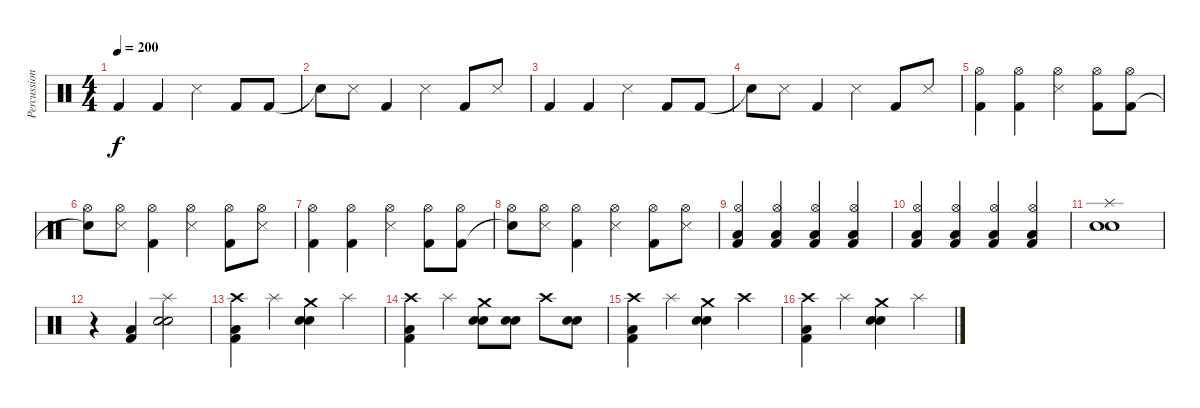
\track ("Percussions" "Percussion") {instrument percussion}
\staff {score}
\articulation defaults
\ts (4 4)
\tempo 200
\clef neutral
\ks c "Kick (hit) 2".4{dy f} "Kick (hit) 2".4 "Snare (side stick) 3".4 "Kick (hit) 2".8 "Kick (hit) 2".8
|
"Snare (hit) 2"{t}.8 "Snare (side stick) 3".8 "Kick (hit) 2".4 "Snare (side stick) 3".4 "Kick (hit) 2".8 "Snare (side stick) 3".8 |
"Kick (hit) 2".4 "Kick (hit) 2".4 "Snare (side stick) 3".4 "Kick (hit) 2".8 "Kick (hit) 2".8 |
"Snare (hit) 2"{t}.8 "Snare (side stick) 3".8 "Kick (hit) 2".4 "Snare (side stick) 3".4 "Kick (hit) 2".8 "Snare (side stick) 3".8 |
("Hi-Hat (open)" "Kick (hit) 2").4 ("Hi-Hat (open)" "Kick (hit) 2").4 ("Hi-Hat (open)" "Snare (side stick) 3").4 ("Hi-Hat (open)" "Kick (hit) 2").8 ("Hi-Hat (open)" "Kick (hit) 2").8 |
("Hi-Hat (open)" "Snare (hit) 2"{t}).8 ("Hi-Hat (open)" "Snare (side stick) 3").8 ("Hi-Hat (open)" "Kick (hit) 2").4 ("Hi-Hat (open)" "Snare (side stick) 3").4 ("Hi-Hat (open)" "Kick (hit) 2").8 ("Hi-Hat (open)" "Snare (side stick) 3").8 |
("Hi-Hat (open)" "Kick (hit) 2").4 ("Hi-Hat (open)" "Kick (hit) 2").4 ("Hi-Hat (open)" "Snare (side stick) 3").4 ("Hi-Hat (open)" "Kick (hit) 2").8 ("Hi-Hat (open)" "Kick (hit) 2").8 |
("Hi-Hat (open)" "Snare (hit) 2"{t}).8 ("Hi-Hat (open)" "Snare (side stick) 3").8 ("Hi-Hat (open)" "Kick (hit) 2").4 ("Hi-Hat (open)" "Snare (side stick) 3").4 ("Hi-Hat (open)" "Kick (hit) 2").8 ("Hi-Hat (open)" "Snare (side stick) 3").8 |
("Hi-Hat (open)" "Kick (hit) 2" "Low Floor Tom (hit)").4 ("Hi-Hat (open)" "Kick (hit) 2" "Low Floor Tom (hit)").4 ("Hi-Hat (open)" "Kick (hit) 2" "Low Floor Tom (hit)").4 ("Hi-Hat (open)" "Kick (hit) 2" "Low Floor Tom (hit)").4 |
("Hi-Hat (open)" "Kick (hit) 2" "Low Floor Tom (hit)").4 ("Hi-Hat (open)" "Kick (hit) 2" "Low Floor Tom (hit)").4 ("Hi-Hat (open)" "Kick (hit) 2" "Low Floor Tom (hit)").4 ("Hi-Hat (open)" "Kick (hit) 2" "Low Floor Tom (hit)").4 |
("Splash (hit)" "Snare (hit) 2" "Electric Snare (hit)").1 |
r.4 ("Kick (hit) 2" "Low Floor Tom (hit)").4 ("Splash (hit)" "Snare (hit) 2" "Electric Snare (hit)").2 |
("Crash high (hit)" "Kick (hit) 2" "Low Floor Tom (hit)").4 "Splash (hit)".4 ("Crash medium (hit)" "Snare (hit) 2" "Electric Snare (hit)").4 "Splash (hit)".4 |
("Crash high (hit)" "Kick (hit) 2" "Low Floor Tom (hit)").4 "Splash (hit)".4 ("Crash medium (hit)" "Snare (hit) 2" "Electric Snare (hit)").8 ("Snare (hit) 2" "Electric Snare (hit)").8 "Crash high (hit)".8 ("Snare (hit) 2" "Electric Snare (hit)").8 |
("Crash high (hit)" "Kick (hit) 2" "Low Floor Tom (hit)").4 "Splash (hit)".4 ("Crash medium (hit)" "Snare (hit) 2" "Electric Snare (hit)").4 "Crash high (hit)".4 |
("Crash high (hit)" "Kick (hit) 2" "Low Floor Tom (hit)").4 "Splash (hit)".4 ("Crash medium (hit)" "Snare (hit) 2" "Electric Snare (hit)").4 "Splash (hit)".4
